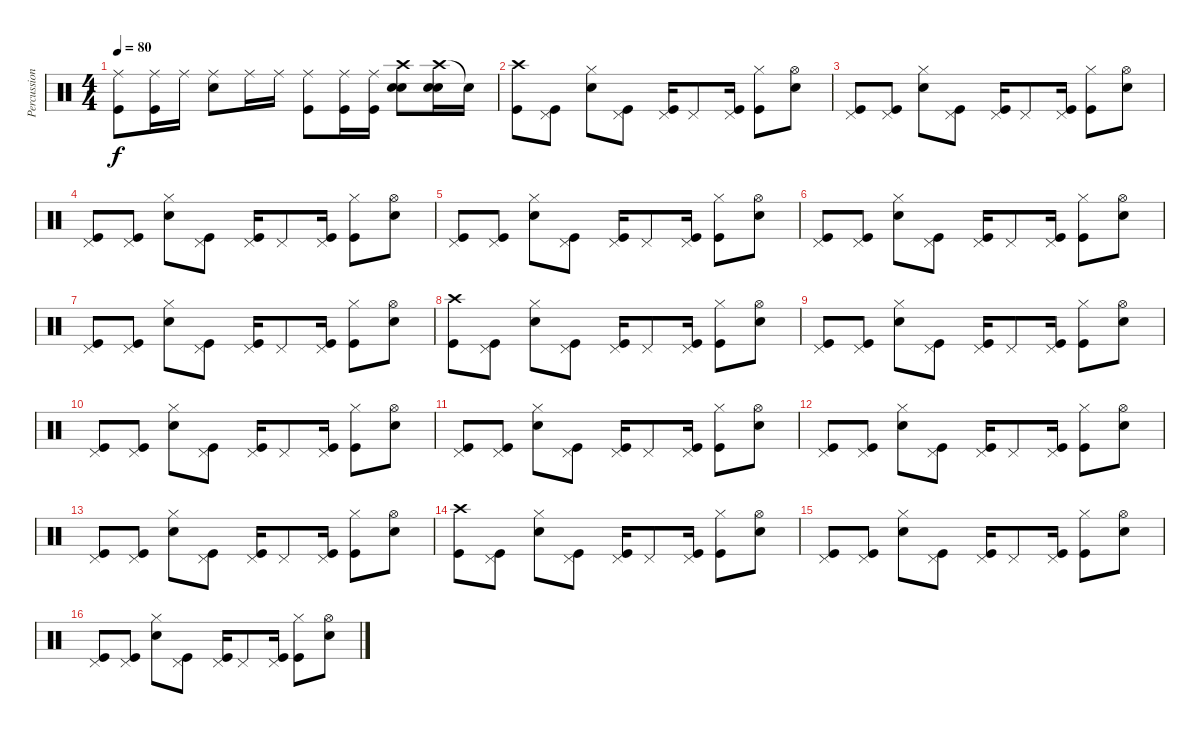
\track ("Percussions" "Percussion") {instrument percussion}
\staff {score}
\articulation defaults
\ts (4 4)
\tempo 80
\clef neutral
\ks c
("Ride (middle)" "Kick (hit)").8{dy f} ("Ride (middle)" "Kick (hit)").16 "Ride (middle)".16 ("Ride (middle)" "Electric Snare (hit)").8 "Ride (middle)".16 "Ride (middle)".16 ("Ride (middle)" "Kick (hit)").8 ("Ride (middle)" "Kick (hit)").16 ("Ride (middle)" "Kick (hit)").16 ("Crash high (hit)" "Electric Snare (hit)" "Electric Snare (hit)").8{volume 16} ("Crash high (hit)" "Electric Snare (hit)" "Electric Snare (hit)").16 "Snare (hit)"{t}.16 |
("Crash high (hit)" "Kick (hit)").8{volume 16} ("Pedal Hi-Hat (hit)" "Kick (hit)").8 ("Hi-Hat (closed)" "Electric Snare (hit)").8 ("Pedal Hi-Hat (hit)" "Kick (hit)").8 ("Pedal Hi-Hat (hit)" "Kick (hit)").16 "Pedal Hi-Hat (hit)".8 ("Pedal Hi-Hat (hit)" "Kick (hit)").16 ("Hi-Hat (closed)" "Kick (hit)").8 ("Hi-Hat (open)" "Electric Snare (hit)").8 |
("Pedal Hi-Hat (hit)" "Kick (hit)").8 ("Pedal Hi-Hat (hit)" "Kick (hit)").8 ("Hi-Hat (closed)" "Electric Snare (hit)").8 ("Pedal Hi-Hat (hit)" "Kick (hit)").8 ("Pedal Hi-Hat (hit)" "Kick (hit)").16 "Pedal Hi-Hat (hit)".8 ("Pedal Hi-Hat (hit)" "Kick (hit)").16 ("Hi-Hat (closed)" "Kick (hit)").8 ("Hi-Hat (open)" "Electric Snare (hit)").8 |
("Pedal Hi-Hat (hit)" "Kick (hit)").8 ("Pedal Hi-Hat (hit)" "Kick (hit)").8 ("Hi-Hat (closed)" "Electric Snare (hit)").8 ("Pedal Hi-Hat (hit)" "Kick (hit)").8 ("Pedal Hi-Hat (hit)" "Kick (hit)").16 "Pedal Hi-Hat (hit)".8 ("Pedal Hi-Hat (hit)" "Kick (hit)").16 ("Hi-Hat (closed)" "Kick (hit)").8 ("Hi-Hat (open)" "Electric Snare (hit)").8 |
("Pedal Hi-Hat (hit)" "Kick (hit)").8 ("Pedal Hi-Hat (hit)" "Kick (hit)").8 ("Hi-Hat (closed)" "Electric Snare (hit)").8 ("Pedal Hi-Hat (hit)" "Kick (hit)").8 ("Pedal Hi-Hat (hit)" "Kick (hit)").16 "Pedal Hi-Hat (hit)".8 ("Pedal Hi-Hat (hit)" "Kick (hit)").16 ("Hi-Hat (closed)" "Kick (hit)").8 ("Hi-Hat (open)" "Electric Snare (hit)").8 |
("Pedal Hi-Hat (hit)" "Kick (hit)").8 ("Pedal Hi-Hat (hit)" "Kick (hit)").8 ("Hi-Hat (closed)" "Electric Snare (hit)").8 ("Pedal Hi-Hat (hit)" "Kick (hit)").8 ("Pedal Hi-Hat (hit)" "Kick (hit)").16 "Pedal Hi-Hat (hit)".8 ("Pedal Hi-Hat (hit)" "Kick (hit)").16 ("Hi-Hat (closed)" "Kick (hit)").8 ("Hi-Hat (open)" "Electric Snare (hit)").8 |
("Pedal Hi-Hat (hit)" "Kick (hit)").8 ("Pedal Hi-Hat (hit)" "Kick (hit)").8 ("Hi-Hat (closed)" "Electric Snare (hit)").8 ("Pedal Hi-Hat (hit)" "Kick (hit)").8 ("Pedal Hi-Hat (hit)" "Kick (hit)").16 "Pedal Hi-Hat (hit)".8 ("Pedal Hi-Hat (hit)" "Kick (hit)").16 ("Hi-Hat (closed)" "Kick (hit)").8 ("Hi-Hat (open)" "Electric Snare (hit)").8 |
("Crash high (hit)" "Kick (hit)").8{volume 16} ("Pedal Hi-Hat (hit)" "Kick (hit)").8 ("Hi-Hat (closed)" "Electric Snare (hit)").8 ("Pedal Hi-Hat (hit)" "Kick (hit)").8 ("Pedal Hi-Hat (hit)" "Kick (hit)").16 "Pedal Hi-Hat (hit)".8 ("Pedal Hi-Hat (hit)" "Kick (hit)").16 ("Hi-Hat (closed)" "Kick (hit)").8 ("Hi-Hat (open)" "Electric Snare (hit)").8 |
("Pedal Hi-Hat (hit)" "Kick (hit)").8 ("Pedal Hi-Hat (hit)" "Kick (hit)").8 ("Hi-Hat (closed)" "Electric Snare (hit)").8 ("Pedal Hi-Hat (hit)" "Kick (hit)").8 ("Pedal Hi-Hat (hit)" "Kick (hit)").16 "Pedal Hi-Hat (hit)".8 ("Pedal Hi-Hat (hit)" "Kick (hit)").16 ("Hi-Hat (closed)" "Kick (hit)").8 ("Hi-Hat (open)" "Electric Snare (hit)").8 |
("Pedal Hi-Hat (hit)" "Kick (hit)").8 ("Pedal Hi-Hat (hit)" "Kick (hit)").8 ("Hi-Hat (closed)" "Electric Snare (hit)").8 ("Pedal Hi-Hat (hit)" "Kick (hit)").8 ("Pedal Hi-Hat (hit)" "Kick (hit)").16 "Pedal Hi-Hat (hit)".8 ("Pedal Hi-Hat (hit)" "Kick (hit)").16 ("Hi-Hat (closed)" "Kick (hit)").8 ("Hi-Hat (open)" "Electric Snare (hit)").8 |
("Pedal Hi-Hat (hit)" "Kick (hit)").8 ("Pedal Hi-Hat (hit)" "Kick (hit)").8 ("Hi-Hat (closed)" "Electric Snare (hit)").8 ("Pedal Hi-Hat (hit)" "Kick (hit)").8 ("Pedal Hi-Hat (hit)" "Kick (hit)").16 "Pedal Hi-Hat (hit)".8 ("Pedal Hi-Hat (hit)" "Kick (hit)").16 ("Hi-Hat (closed)" "Kick (hit)").8 ("Hi-Hat (open)" "Electric Snare (hit)").8 |
("Pedal Hi-Hat (hit)" "Kick (hit)").8 ("Pedal Hi-Hat (hit)" "Kick (hit)").8 ("Hi-Hat (closed)" "Electric Snare (hit)").8 ("Pedal Hi-Hat (hit)" "Kick (hit)").8 ("Pedal Hi-Hat (hit)" "Kick (hit)").16 "Pedal Hi-Hat (hit)".8 ("Pedal Hi-Hat (hit)" "Kick (hit)").16 ("Hi-Hat (closed)" "Kick (hit)").8 ("Hi-Hat (open)" "Electric Snare (hit)").8 |
("Pedal Hi-Hat (hit)" "Kick (hit)").8 ("Pedal Hi-Hat (hit)" "Kick (hit)").8 ("Hi-Hat (closed)" "Electric Snare (hit)").8 ("Pedal Hi-Hat (hit)" "Kick (hit)").8 ("Pedal Hi-Hat (hit)" "Kick (hit)").16 "Pedal Hi-Hat (hit)".8 ("Pedal Hi-Hat (hit)" "Kick (hit)").16 ("Hi-Hat (closed)" "Kick (hit)").8 ("Hi-Hat (open)" "Electric Snare (hit)").8 |
("Crash high (hit)" "Kick (hit)").8{volume 0} ("Pedal Hi-Hat (hit)" "Kick (hit)").8 ("Hi-Hat (closed)" "Electric Snare (hit)").8 ("Pedal Hi-Hat (hit)" "Kick (hit)").8 ("Pedal Hi-Hat (hit)" "Kick (hit)").16 "Pedal Hi-Hat (hit)".8 ("Pedal Hi-Hat (hit)" "Kick (hit)").16 ("Hi-Hat (closed)" "Kick (hit)").8 ("Hi-Hat (open)" "Electric Snare (hit)").8 |
("Pedal Hi-Hat (hit)" "Kick (hit)").8 ("Pedal Hi-Hat (hit)" "Kick (hit)").8 ("Hi-Hat (closed)" "Electric Snare (hit)").8 ("Pedal Hi-Hat (hit)" "Kick (hit)").8 ("Pedal Hi-Hat (hit)" "Kick (hit)").16 "Pedal Hi-Hat (hit)".8 ("Pedal Hi-Hat (hit)" "Kick (hit)").16 ("Hi-Hat (closed)" "Kick (hit)").8 ("Hi-Hat (open)" "Electric Snare (hit)").8 |
("Pedal Hi-Hat (hit)" "Kick (hit)").8 ("Pedal Hi-Hat (hit)" "Kick (hit)").8 ("Hi-Hat (closed)" "Electric Snare (hit)").8 ("Pedal Hi-Hat (hit)" "Kick (hit)").8 ("Pedal Hi-Hat (hit)" "Kick (hit)").16 "Pedal Hi-Hat (hit)".8 ("Pedal Hi-Hat (hit)" "Kick (hit)").16 ("Hi-Hat (closed)" "Kick (hit)").8 ("Hi-Hat (open)" "Electric Snare (hit)").8
